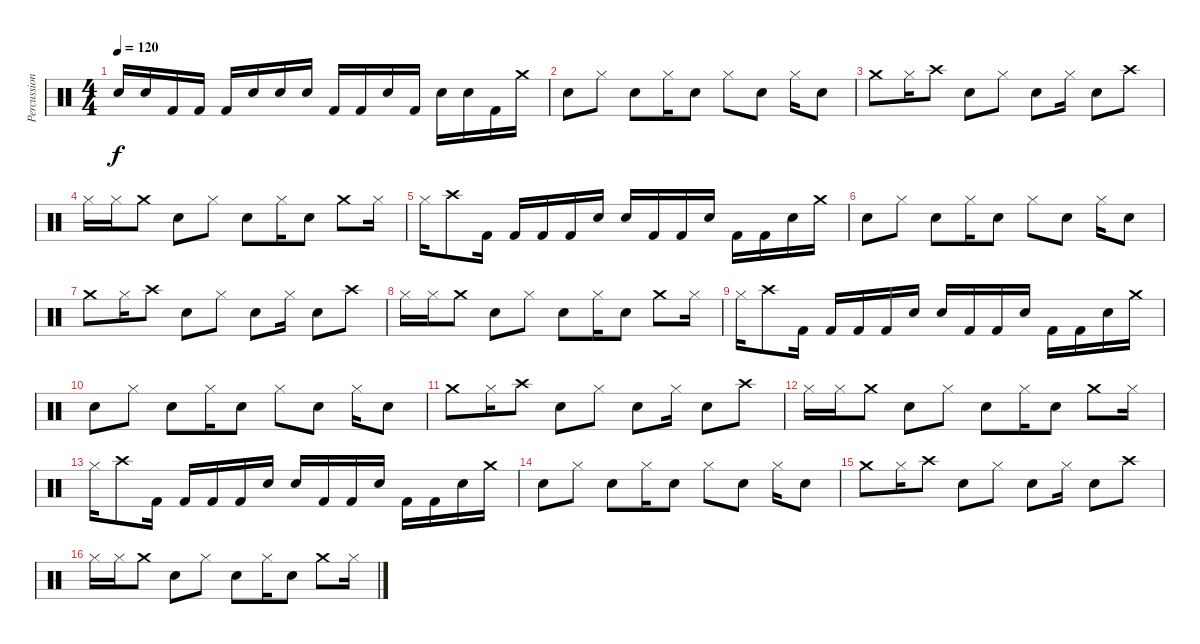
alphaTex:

\track ("Percussioni" "Percussion") {instrument percussion}
\staff {score}
\articulation defaults
\ts (4 4)
\tempo 120
\clef neutral
\ks c "Snare (hit) 2".16{dy f} "Snare (hit) 2".16 "Kick (hit) 2".16 "Kick (hit) 2".16 "Kick (hit) 2".16 "Snare (hit) 2".16 "Snare (hit) 2".16 "Snare (hit) 2".16 "Kick (hit) 2".16 "Kick (hit) 2".16 "Snare (hit) 2".16 "Kick (hit) 2".16 "Snare (hit) 2".16 "Snare (hit) 2".16 "Kick (hit) 2".16 "Crash medium (hit)".16
|
"Snare (hit) 2".8 "Hi-Hat (closed)".8 "Snare (hit) 2".8 "Hi-Hat (closed)".16 "Snare (hit) 2".8 "Hi-Hat (closed)".8 "Snare (hit) 2".8 "Hi-Hat (closed)".16 "Snare (hit) 2".8 |
"Crash medium (hit)".8 "Hi-Hat (closed)".16 "Crash high (hit)".8 "Snare (hit) 2".8 "Hi-Hat (closed)".8 "Snare (hit) 2".8 "Hi-Hat (closed)".16 "Snare (hit) 2".8 "Crash high (hit)".8 |
"Hi-Hat (closed)".16 "Hi-Hat (closed)".16 "Crash medium (hit)".8 "Snare (hit) 2".8 "Hi-Hat (closed)".8 "Snare (hit) 2".8 "Hi-Hat (closed)".16 "Snare (hit) 2".8 "Crash medium (hit)".8 "Hi-Hat (closed)".16 |
"Hi-Hat (closed)".16 "Crash high (hit)".8 "Kick (hit) 2".16 "Kick (hit) 2".16 "Kick (hit) 2".16 "Kick (hit) 2".16 "Snare (hit) 2".16 "Snare (hit) 2".16 "Kick (hit) 2".16 "Kick (hit) 2".16 "Snare (hit) 2".16 "Kick (hit) 2".16 "Kick (hit) 2".16 "Snare (hit) 2".16 "Crash medium (hit)".16 |
"Snare (hit) 2".8 "Hi-Hat (closed)".8 "Snare (hit) 2".8 "Hi-Hat (closed)".16 "Snare (hit) 2".8 "Hi-Hat (closed)".8 "Snare (hit) 2".8 "Hi-Hat (closed)".16 "Snare (hit) 2".8 |
"Crash medium (hit)".8 "Hi-Hat (closed)".16 "Crash high (hit)".8 "Snare (hit) 2".8 "Hi-Hat (closed)".8 "Snare (hit) 2".8 "Hi-Hat (closed)".16 "Snare (hit) 2".8 "Crash high (hit)".8 |
"Hi-Hat (closed)".16 "Hi-Hat (closed)".16 "Crash medium (hit)".8 "Snare (hit) 2".8 "Hi-Hat (closed)".8 "Snare (hit) 2".8 "Hi-Hat (closed)".16 "Snare (hit) 2".8 "Crash medium (hit)".8 "Hi-Hat (closed)".16 |
"Hi-Hat (closed)".16 "Crash high (hit)".8 "Kick (hit) 2".16 "Kick (hit) 2".16 "Kick (hit) 2".16 "Kick (hit) 2".16 "Snare (hit) 2".16 "Snare (hit) 2".16 "Kick (hit) 2".16 "Kick (hit) 2".16 "Snare (hit) 2".16 "Kick (hit) 2".16 "Kick (hit) 2".16 "Snare (hit) 2".16 "Crash medium (hit)".16 |
"Snare (hit) 2".8 "Hi-Hat (closed)".8 "Snare (hit) 2".8 "Hi-Hat (closed)".16 "Snare (hit) 2".8 "Hi-Hat (closed)".8 "Snare (hit) 2".8 "Hi-Hat (closed)".16 "Snare (hit) 2".8 |
"Crash medium (hit)".8 "Hi-Hat (closed)".16 "Crash high (hit)".8 "Snare (hit) 2".8 "Hi-Hat (closed)".8 "Snare (hit) 2".8 "Hi-Hat (closed)".16 "Snare (hit) 2".8 "Crash high (hit)".8 |
"Hi-Hat (closed)".16 "Hi-Hat (closed)".16 "Crash medium (hit)".8 "Snare (hit) 2".8 "Hi-Hat (closed)".8 "Snare (hit) 2".8 "Hi-Hat (closed)".16 "Snare (hit) 2".8 "Crash medium (hit)".8 "Hi-Hat (closed)".16 |
"Hi-Hat (closed)".16 "Crash high (hit)".8 "Kick (hit) 2".16 "Kick (hit) 2".16 "Kick (hit) 2".16 "Kick (hit) 2".16 "Snare (hit) 2".16 "Snare (hit) 2".16 "Kick (hit) 2".16 "Kick (hit) 2".16 "Snare (hit) 2".16 "Kick (hit) 2".16 "Kick (hit) 2".16 "Snare (hit) 2".16 "Crash medium (hit)".16 |
"Snare (hit) 2".8 "Hi-Hat (closed)".8 "Snare (hit) 2".8 "Hi-Hat (closed)".16 "Snare (hit) 2".8 "Hi-Hat (closed)".8 "Snare (hit) 2".8 "Hi-Hat (closed)".16 "Snare (hit) 2".8 |
"Crash medium (hit)".8 "Hi-Hat (closed)".16 "Crash high (hit)".8 "Snare (hit) 2".8 "Hi-Hat (closed)".8 "Snare (hit) 2".8 "Hi-Hat (closed)".16 "Snare (hit) 2".8 "Crash high (hit)".8 |
"Hi-Hat (closed)".16 "Hi-Hat (closed)".16 "Crash medium (hit)".8 "Snare (hit) 2".8 "Hi-Hat (closed)".8 "Snare (hit) 2".8 "Hi-Hat (closed)".16 "Snare (hit) 2".8 "Crash medium (hit)".8 "Hi-Hat (closed)".16
